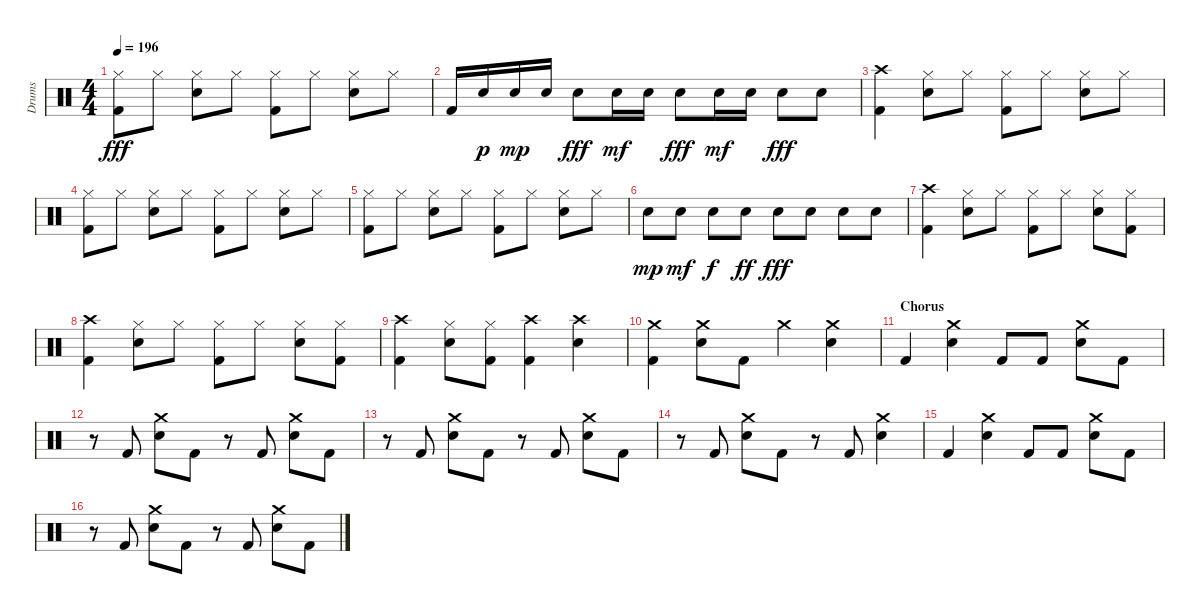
\track ("Drums" "Drums") {instrument percussion}
\staff {score}
\articulation defaults
\ts (4 4)
\tempo 196
\clef neutral
\ks c
("Hi-Hat (closed)" "Kick (hit) 2").8{dy fff} "Hi-Hat (closed)".8 ("Hi-Hat (closed)" "Snare (hit) 2").8 "Hi-Hat (closed)".8 ("Hi-Hat (closed)" "Kick (hit) 2").8 "Hi-Hat (closed)".8 ("Hi-Hat (closed)" "Snare (hit) 2").8 "Hi-Hat (closed)".8 |
"Kick (hit) 2".16 "Snare (hit) 2".16{dy p} "Snare (hit) 2".16{dy mp} "Snare (hit) 2".16 "Snare (hit) 2".8{dy fff} "Snare (hit) 2".16{dy mf} "Snare (hit) 2".16 "Snare (hit) 2".8{dy fff} "Snare (hit) 2".16{dy mf} "Snare (hit) 2".16 "Snare (hit) 2".8{dy fff} "Snare (hit) 2".8 |
("Crash high (hit)" "Kick (hit) 2").4 ("Hi-Hat (closed)" "Snare (hit) 2").8 "Hi-Hat (closed)".8 ("Hi-Hat (closed)" "Kick (hit) 2").8 "Hi-Hat (closed)".8 ("Hi-Hat (closed)" "Snare (hit) 2").8 "Hi-Hat (closed)".8 |
("Hi-Hat (closed)" "Kick (hit) 2").8 "Hi-Hat (closed)".8 ("Hi-Hat (closed)" "Snare (hit) 2").8 "Hi-Hat (closed)".8 ("Hi-Hat (closed)" "Kick (hit) 2").8 "Hi-Hat (closed)".8 ("Hi-Hat (closed)" "Snare (hit) 2").8 "Hi-Hat (closed)".8 |
("Hi-Hat (closed)" "Kick (hit) 2").8 "Hi-Hat (closed)".8 ("Hi-Hat (closed)" "Snare (hit) 2").8 "Hi-Hat (closed)".8 ("Hi-Hat (closed)" "Kick (hit) 2").8 "Hi-Hat (closed)".8 ("Hi-Hat (closed)" "Snare (hit) 2").8 "Hi-Hat (closed)".8 |
"Snare (hit) 2".8{dy mp} "Snare (hit) 2".8{dy mf} "Snare (hit) 2".8{dy f} "Snare (hit) 2".8{dy ff} "Snare (hit) 2".8{dy fff} "Snare (hit) 2".8 "Snare (hit) 2".8 "Snare (hit) 2".8 |
("Crash high (hit)" "Kick (hit) 2").4 ("Hi-Hat (closed)" "Snare (hit) 2").8 "Hi-Hat (closed)".8 ("Hi-Hat (closed)" "Kick (hit) 2").8 "Hi-Hat (closed)".8 ("Hi-Hat (closed)" "Snare (hit) 2").8 ("Hi-Hat (closed)" "Kick (hit) 2").8 |
("Crash high (hit)" "Kick (hit) 2").4 ("Hi-Hat (closed)" "Snare (hit) 2").8 "Hi-Hat (closed)".8 ("Hi-Hat (closed)" "Kick (hit) 2").8 "Hi-Hat (closed)".8 ("Hi-Hat (closed)" "Snare (hit) 2").8 ("Hi-Hat (closed)" "Kick (hit) 2").8 |
("Crash high (hit)" "Kick (hit) 2").4 ("Hi-Hat (closed)" "Snare (hit) 2").8 ("Hi-Hat (closed)" "Kick (hit) 2").8 ("Crash high (hit)" "Kick (hit) 2").4 ("Crash high (hit)" "Snare (hit) 2").4 |
("Crash medium (hit)" "Kick (hit) 2").4 ("Crash medium (hit)" "Snare (hit) 2").8 "Kick (hit) 2".8 "Crash medium (hit)".4 ("Crash medium (hit)" "Snare (hit) 2").4 |
\section ("" "Chorus")
"Kick (hit) 2".4 ("Crash medium (hit)" "Snare (hit) 2").4 "Kick (hit) 2".8 "Kick (hit) 2".8 ("Crash medium (hit)" "Snare (hit) 2").8 "Kick (hit) 2".8 |
r.8 "Kick (hit) 2".8 ("Crash medium (hit)" "Snare (hit) 2").8 "Kick (hit) 2".8 r.8 "Kick (hit) 2".8 ("Crash medium (hit)" "Snare (hit) 2").8 "Kick (hit) 2".8 |
r.8 "Kick (hit) 2".8 ("Crash medium (hit)" "Snare (hit) 2").8 "Kick (hit) 2".8 r.8 "Kick (hit) 2".8 ("Crash medium (hit)" "Snare (hit) 2").8 "Kick (hit) 2".8 |
r.8 "Kick (hit) 2".8 ("Crash medium (hit)" "Snare (hit) 2").8 "Kick (hit) 2".8 r.8 "Kick (hit) 2".8 ("Crash medium (hit)" "Snare (hit) 2").4 |
"Kick (hit) 2".4 ("Crash medium (hit)" "Snare (hit) 2").4 "Kick (hit) 2".8 "Kick (hit) 2".8 ("Crash medium (hit)" "Snare (hit) 2").8 "Kick (hit) 2".8 |
r.8 "Kick (hit) 2".8 ("Crash medium (hit)" "Snare (hit) 2").8 "Kick (hit) 2".8 r.8 "Kick (hit) 2".8 ("Crash medium (hit)" "Snare (hit) 2").8 "Kick (hit) 2".8
